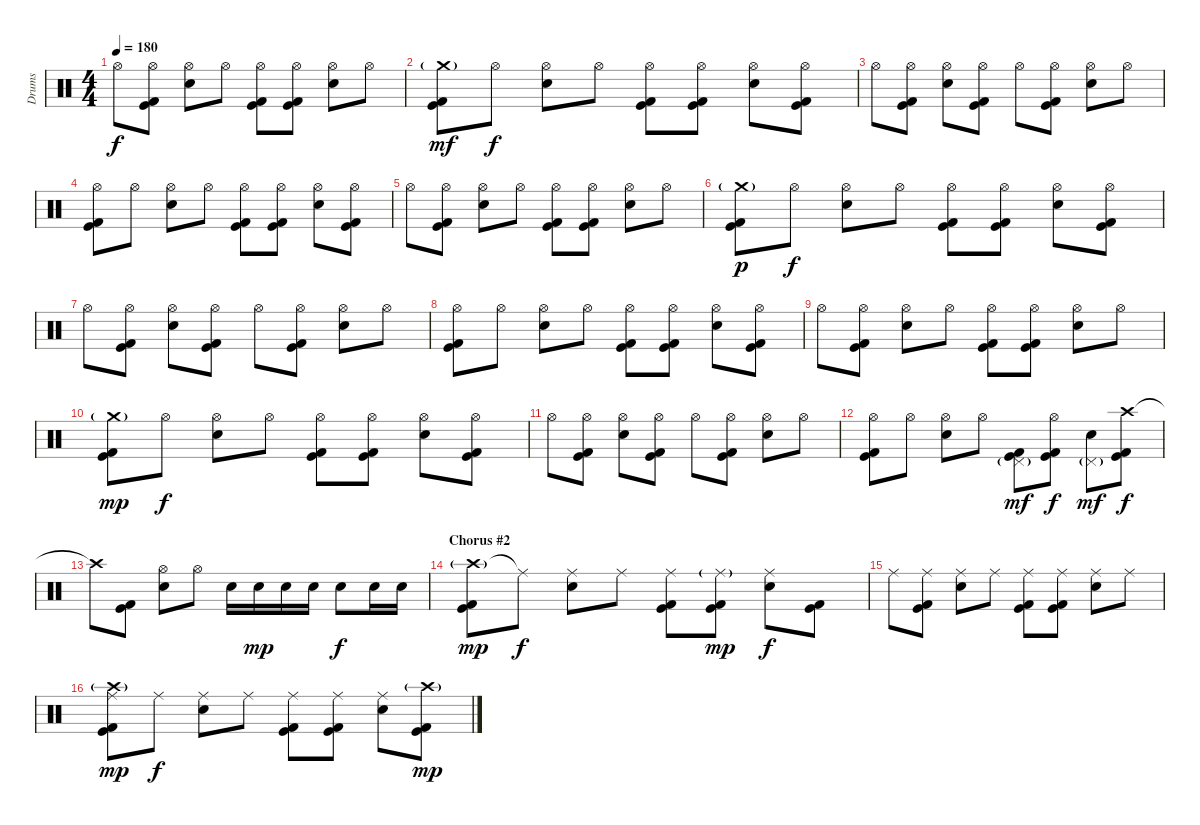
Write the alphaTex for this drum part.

\track ("Drums" "Drums") {instrument percussion}
\staff {score}
\articulation defaults
\ts (4 4)
\tempo 180
\clef neutral
\ks c "Hi-Hat (open)".8{dy f}
("Hi-Hat (open)" "Kick (hit) 2" "Kick (hit)").8 ("Hi-Hat (open)" "Electric Snare (hit)").8 "Hi-Hat (open)".8 ("Hi-Hat (open)" "Kick (hit) 2" "Kick (hit)").8 ("Hi-Hat (open)" "Kick (hit) 2" "Kick (hit)").8 ("Hi-Hat (open)" "Electric Snare (hit)").8 "Hi-Hat (open)".8 |
("Crash medium (hit)"{g} "Kick (hit) 2" "Kick (hit)").8{dy mf} "Hi-Hat (open)".8{dy f} ("Hi-Hat (open)" "Electric Snare (hit)").8 "Hi-Hat (open)".8 ("Hi-Hat (open)" "Kick (hit) 2" "Kick (hit)").8 ("Hi-Hat (open)" "Kick (hit) 2" "Kick (hit)").8 ("Hi-Hat (open)" "Electric Snare (hit)").8 ("Hi-Hat (open)" "Kick (hit) 2" "Kick (hit)").8 |
"Hi-Hat (open)".8 ("Hi-Hat (open)" "Kick (hit) 2" "Kick (hit)").8 ("Hi-Hat (open)" "Electric Snare (hit)").8 ("Hi-Hat (open)" "Kick (hit) 2" "Kick (hit)").8 "Hi-Hat (open)".8 ("Hi-Hat (open)" "Kick (hit) 2" "Kick (hit)").8 ("Hi-Hat (open)" "Electric Snare (hit)").8 "Hi-Hat (open)".8 |
("Hi-Hat (open)" "Kick (hit) 2" "Kick (hit)").8 "Hi-Hat (open)".8 ("Hi-Hat (open)" "Electric Snare (hit)").8 "Hi-Hat (open)".8 ("Hi-Hat (open)" "Kick (hit) 2" "Kick (hit)").8 ("Hi-Hat (open)" "Kick (hit) 2" "Kick (hit)").8 ("Hi-Hat (open)" "Electric Snare (hit)").8 ("Hi-Hat (open)" "Kick (hit) 2" "Kick (hit)").8 |
"Hi-Hat (open)".8 ("Hi-Hat (open)" "Kick (hit) 2" "Kick (hit)").8 ("Hi-Hat (open)" "Electric Snare (hit)").8 "Hi-Hat (open)".8 ("Hi-Hat (open)" "Kick (hit) 2" "Kick (hit)").8 ("Hi-Hat (open)" "Kick (hit) 2" "Kick (hit)").8 ("Hi-Hat (open)" "Electric Snare (hit)").8 "Hi-Hat (open)".8 |
("Crash medium (hit)"{g} "Kick (hit) 2" "Kick (hit)").8{dy p} "Hi-Hat (open)".8{dy f} ("Hi-Hat (open)" "Electric Snare (hit)").8 "Hi-Hat (open)".8 ("Hi-Hat (open)" "Kick (hit) 2" "Kick (hit)").8 ("Hi-Hat (open)" "Kick (hit) 2" "Kick (hit)").8 ("Hi-Hat (open)" "Electric Snare (hit)").8 ("Hi-Hat (open)" "Kick (hit) 2" "Kick (hit)").8 |
"Hi-Hat (open)".8 ("Hi-Hat (open)" "Kick (hit) 2" "Kick (hit)").8 ("Hi-Hat (open)" "Electric Snare (hit)").8 ("Hi-Hat (open)" "Kick (hit) 2" "Kick (hit)").8 "Hi-Hat (open)".8 ("Hi-Hat (open)" "Kick (hit) 2" "Kick (hit)").8 ("Hi-Hat (open)" "Electric Snare (hit)").8 "Hi-Hat (open)".8 |
("Hi-Hat (open)" "Kick (hit) 2" "Kick (hit)").8 "Hi-Hat (open)".8 ("Hi-Hat (open)" "Electric Snare (hit)").8 "Hi-Hat (open)".8 ("Hi-Hat (open)" "Kick (hit) 2" "Kick (hit)").8 ("Hi-Hat (open)" "Kick (hit) 2" "Kick (hit)").8 ("Hi-Hat (open)" "Electric Snare (hit)").8 ("Hi-Hat (open)" "Kick (hit) 2" "Kick (hit)").8 |
"Hi-Hat (open)".8 ("Hi-Hat (open)" "Kick (hit) 2" "Kick (hit)").8 ("Hi-Hat (open)" "Electric Snare (hit)").8 "Hi-Hat (open)".8 ("Hi-Hat (open)" "Kick (hit) 2" "Kick (hit)").8 ("Hi-Hat (open)" "Kick (hit) 2" "Kick (hit)").8 ("Hi-Hat (open)" "Electric Snare (hit)").8 "Hi-Hat (open)".8 |
("Crash medium (hit)"{g} "Kick (hit) 2" "Kick (hit)").8{dy mp} "Hi-Hat (open)".8{dy f} ("Hi-Hat (open)" "Electric Snare (hit)").8 "Hi-Hat (open)".8 ("Hi-Hat (open)" "Kick (hit) 2" "Kick (hit)").8 ("Hi-Hat (open)" "Kick (hit) 2" "Kick (hit)").8 ("Hi-Hat (open)" "Electric Snare (hit)").8 ("Hi-Hat (open)" "Kick (hit) 2" "Kick (hit)").8 |
"Hi-Hat (open)".8 ("Hi-Hat (open)" "Kick (hit) 2" "Kick (hit)").8 ("Hi-Hat (open)" "Electric Snare (hit)").8 ("Hi-Hat (open)" "Kick (hit) 2" "Kick (hit)").8 "Hi-Hat (open)".8 ("Hi-Hat (open)" "Kick (hit) 2" "Kick (hit)").8 ("Hi-Hat (open)" "Electric Snare (hit)").8 "Hi-Hat (open)".8 |
("Hi-Hat (open)" "Kick (hit) 2" "Kick (hit)").8 "Hi-Hat (open)".8 ("Hi-Hat (open)" "Electric Snare (hit)").8 "Hi-Hat (open)".8 ("Pedal Hi-Hat (hit)"{g} "Kick (hit) 2" "Kick (hit)").8{dy mf} ("Hi-Hat (open)" "Kick (hit) 2" "Kick (hit)").8{dy f} ("Pedal Hi-Hat (hit)"{g} "Electric Snare (hit)").8{dy mf} ("Crash high (hit)" "Kick (hit) 2" "Kick (hit)").8{dy f} |
"Crash high (hit)"{t}.8 ("Kick (hit) 2" "Kick (hit)").8 ("Hi-Hat (open)" "Electric Snare (hit)").8 "Hi-Hat (open)".8 "Electric Snare (hit)".16 "Electric Snare (hit)".16{dy mp} "Electric Snare (hit)".16 "Electric Snare (hit)".16 "Electric Snare (hit)".8{dy f} "Electric Snare (hit)".16 "Electric Snare (hit)".16 |
\section ("" "Chorus #2")
("Crash high (hit)"{g} "Kick (hit) 2" "Kick (hit)").8{dy mp} "Ride (middle)"{t}.8{dy f} ("Ride (middle)" "Electric Snare (hit)").8 "Ride (middle)".8 ("Ride (middle)" "Kick (hit) 2" "Kick (hit)").8 ("Ride (middle)"{g} "Kick (hit) 2" "Kick (hit)").8{dy mp} ("Ride (middle)" "Electric Snare (hit)").8{dy f} ("Kick (hit) 2" "Kick (hit)").8 |
"Ride (middle)".8 ("Ride (middle)" "Kick (hit) 2" "Kick (hit)").8 ("Ride (middle)" "Electric Snare (hit)").8 "Ride (middle)".8 ("Ride (middle)" "Kick (hit) 2" "Kick (hit)").8 ("Ride (middle)" "Kick (hit) 2" "Kick (hit)").8 ("Ride (middle)" "Electric Snare (hit)").8 "Ride (middle)".8 |
("Ride (middle)" "Crash high (hit)"{g} "Kick (hit) 2" "Kick (hit)").8{dy mp} "Ride (middle)".8{dy f} ("Ride (middle)" "Electric Snare (hit)").8 "Ride (middle)".8 ("Ride (middle)" "Kick (hit) 2" "Kick (hit)").8 ("Ride (middle)" "Kick (hit) 2" "Kick (hit)").8 ("Ride (middle)" "Electric Snare (hit)").8 ("Crash high (hit)"{g} "Kick (hit) 2" "Kick (hit)").8{dy mp}
